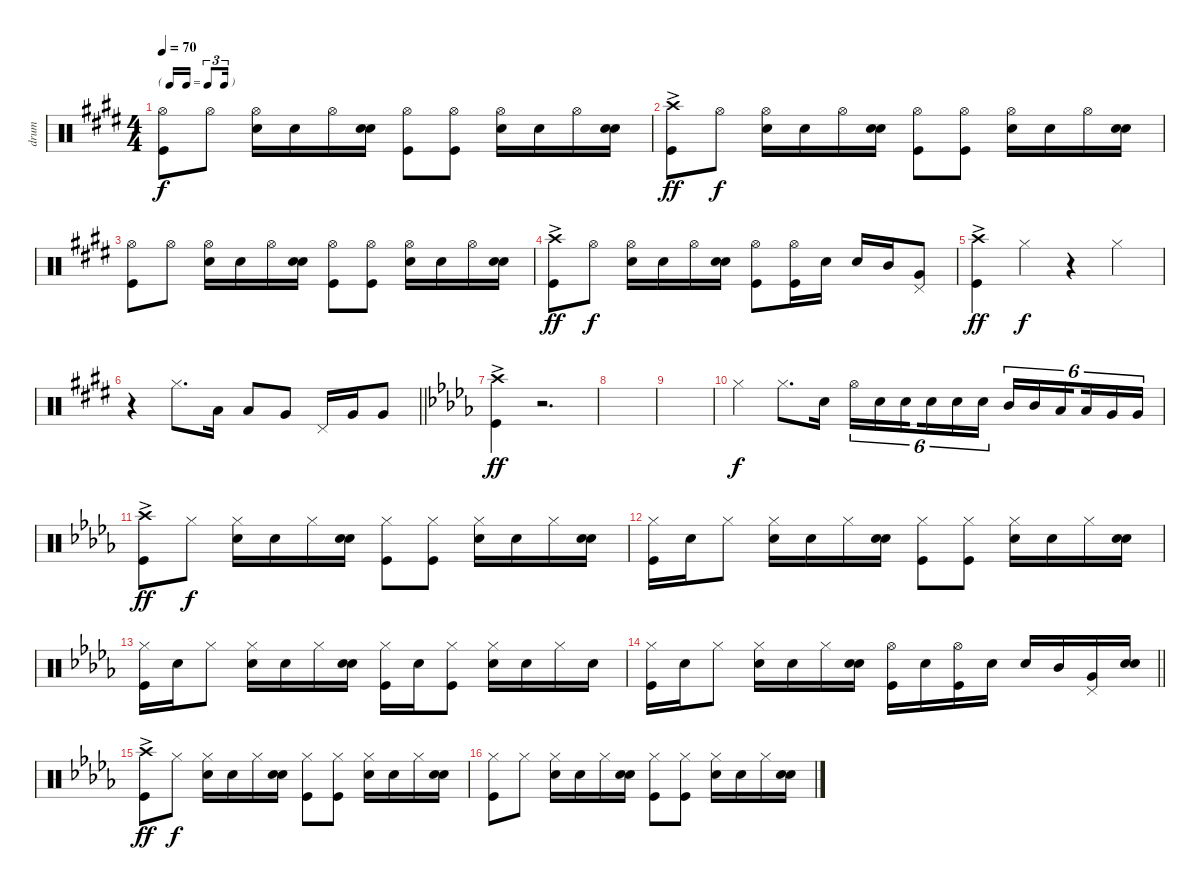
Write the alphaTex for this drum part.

\track ("drum" "drum") {instrument percussion}
\staff {score}
\articulation defaults
\ts (4 4)
\tf triplet16th
\tempo 70
\clef neutral
\ks e
("Hi-Hat (open)" "Kick (hit)").8{dy f} "Hi-Hat (open)".8 ("Hi-Hat (open)" "Snare (hit) 2").16 "Snare (hit) 2".16 "Hi-Hat (open)".16 ("Snare (hit) 2" "Snare (hit) 2").16 ("Hi-Hat (open)" "Kick (hit)").8 ("Hi-Hat (open)" "Kick (hit)").8 ("Hi-Hat (open)" "Snare (hit) 2").16 "Snare (hit) 2".16 "Hi-Hat (open)".16 ("Snare (hit) 2" "Snare (hit) 2").16 |
("Crash high (hit)"{ac} "Kick (hit)").8{dy ff} "Hi-Hat (open)".8{dy f} ("Hi-Hat (open)" "Snare (hit) 2").16 "Snare (hit) 2".16 "Hi-Hat (open)".16 ("Snare (hit) 2" "Snare (hit) 2").16 ("Hi-Hat (open)" "Kick (hit)").8 ("Hi-Hat (open)" "Kick (hit)").8 ("Hi-Hat (open)" "Snare (hit) 2").16 "Snare (hit) 2".16 "Hi-Hat (open)".16 ("Snare (hit) 2" "Snare (hit) 2").16 |
("Hi-Hat (open)" "Kick (hit)").8 "Hi-Hat (open)".8 ("Hi-Hat (open)" "Snare (hit) 2").16 "Snare (hit) 2".16 "Hi-Hat (open)".16 ("Snare (hit) 2" "Snare (hit) 2").16 ("Hi-Hat (open)" "Kick (hit)").8 ("Hi-Hat (open)" "Kick (hit)").8 ("Hi-Hat (open)" "Snare (hit) 2").16 "Snare (hit) 2".16 "Hi-Hat (open)".16 ("Snare (hit) 2" "Snare (hit) 2").16 |
("Crash high (hit)"{ac} "Kick (hit)").8{dy ff} "Hi-Hat (open)".8{dy f} ("Hi-Hat (open)" "Snare (hit) 2").16 "Snare (hit) 2".16 "Hi-Hat (open)".16 ("Snare (hit) 2" "Snare (hit) 2").16 ("Hi-Hat (open)" "Kick (hit)").8 ("Hi-Hat (open)" "Kick (hit)").16 "Snare (hit) 2".16 "Snare (hit) 2".16 "Mid Tom (hit)".16 ("Very Low Tom (hit)" "Pedal Hi-Hat (hit)").8 |
("Crash high (hit)"{ac} "Kick (hit)").4{dy ff} "Hi-Hat (closed)".4{dy f} r.4 "Hi-Hat (closed)".4 |
\barLineRight lightlight
r.4 "Hi-Hat (closed)".8{d} "Low Tom (hit)".16 "Low Tom (hit)".8 "Very Low Tom (hit)".8 "Pedal Hi-Hat (hit)".16 "Very Low Tom (hit)".16 "Very Low Tom (hit)".8 |
\section ("" "")
\ks db
("Crash high (hit)"{ac} "Kick (hit)").4{dy ff} r.2{d} |
|
|
"Hi-Hat (closed)".4{dy f} "Hi-Hat (closed)".8{d} "Snare (hit) 2".16 "Hi-Hat (open)".16{tu (6 4)} "Snare (hit) 2".16{tu (6 4)} "Snare (hit) 2".16{tu (6 4) beam splitsecondary} "Snare (hit) 2".16{tu (6 4)} "Snare (hit) 2".16{tu (6 4)} "Snare (hit) 2".16{tu (6 4)} "Mid Tom (hit)".16{tu (6 4)} "Mid Tom (hit)".16{tu (6 4)} "Low Tom (hit)".16{tu (6 4) beam splitsecondary} "Low Tom (hit)".16{tu (6 4)} "Very Low Tom (hit)".16{tu (6 4)} "Very Low Tom (hit)".16{tu (6 4)} |
("Crash high (hit)"{ac} "Kick (hit)").8{dy ff} "Hi-Hat (closed)".8{dy f} ("Hi-Hat (closed)" "Snare (hit) 2").16 "Snare (hit) 2".16 "Hi-Hat (closed)".16 ("Snare (hit) 2" "Snare (hit) 2").16 ("Hi-Hat (closed)" "Kick (hit)").8 ("Hi-Hat (closed)" "Kick (hit)").8 ("Hi-Hat (closed)" "Snare (hit) 2").16 "Snare (hit) 2".16 "Hi-Hat (closed)".16 ("Snare (hit) 2" "Snare (hit) 2").16 |
("Hi-Hat (closed)" "Kick (hit)").16 "Snare (hit) 2".16 "Hi-Hat (closed)".8 ("Hi-Hat (closed)" "Snare (hit) 2").16 "Snare (hit) 2".16 "Hi-Hat (closed)".16 ("Snare (hit) 2" "Snare (hit) 2").16 ("Hi-Hat (closed)" "Kick (hit)").8 ("Hi-Hat (closed)" "Kick (hit)").8 ("Hi-Hat (closed)" "Snare (hit) 2").16 "Snare (hit) 2".16 "Hi-Hat (closed)".16 ("Snare (hit) 2" "Snare (hit) 2").16 |
("Hi-Hat (closed)" "Kick (hit)").16 "Snare (hit) 2".16 "Hi-Hat (closed)".8 ("Hi-Hat (closed)" "Snare (hit) 2").16 "Snare (hit) 2".16 "Hi-Hat (closed)".16 ("Snare (hit) 2" "Snare (hit) 2").16 ("Hi-Hat (closed)" "Kick (hit)").16 "Snare (hit) 2".16 ("Hi-Hat (closed)" "Kick (hit)").8 ("Hi-Hat (closed)" "Snare (hit) 2").16 "Snare (hit) 2".16 "Hi-Hat (closed)".16 "Snare (hit) 2".16 |
\barLineRight lightlight
("Hi-Hat (closed)" "Kick (hit)").16 "Snare (hit) 2".16 "Hi-Hat (closed)".8 ("Hi-Hat (closed)" "Snare (hit) 2").16 "Snare (hit) 2".16 "Hi-Hat (closed)".16 ("Snare (hit) 2" "Snare (hit) 2").16 ("Hi-Hat (open)" "Kick (hit)").16 "Snare (hit) 2".16 ("Hi-Hat (open)" "Kick (hit)").16 "Snare (hit) 2".16 "Snare (hit) 2".16 "Mid Tom (hit)".16 ("Very Low Tom (hit)" "Pedal Hi-Hat (hit)").16 ("Snare (hit) 2" "Snare (hit) 2").16 |
\section ("" "")
("Crash high (hit)"{ac} "Kick (hit)").8{dy ff} "Hi-Hat (closed)".8{dy f} ("Hi-Hat (closed)" "Snare (hit) 2").16 "Snare (hit) 2".16 "Hi-Hat (closed)".16 ("Snare (hit) 2" "Snare (hit) 2").16 ("Hi-Hat (closed)" "Kick (hit)").8 ("Hi-Hat (closed)" "Kick (hit)").8 ("Hi-Hat (closed)" "Snare (hit) 2").16 "Snare (hit) 2".16 "Hi-Hat (closed)".16 ("Snare (hit) 2" "Snare (hit) 2").16 |
("Hi-Hat (closed)" "Kick (hit)").8 "Hi-Hat (closed)".8 ("Hi-Hat (closed)" "Snare (hit) 2").16 "Snare (hit) 2".16 "Hi-Hat (closed)".16 ("Snare (hit) 2" "Snare (hit) 2").16 ("Hi-Hat (closed)" "Kick (hit)").8 ("Hi-Hat (closed)" "Kick (hit)").8 ("Hi-Hat (closed)" "Snare (hit) 2").16 "Snare (hit) 2".16 "Hi-Hat (closed)".16 ("Snare (hit) 2" "Snare (hit) 2").16
